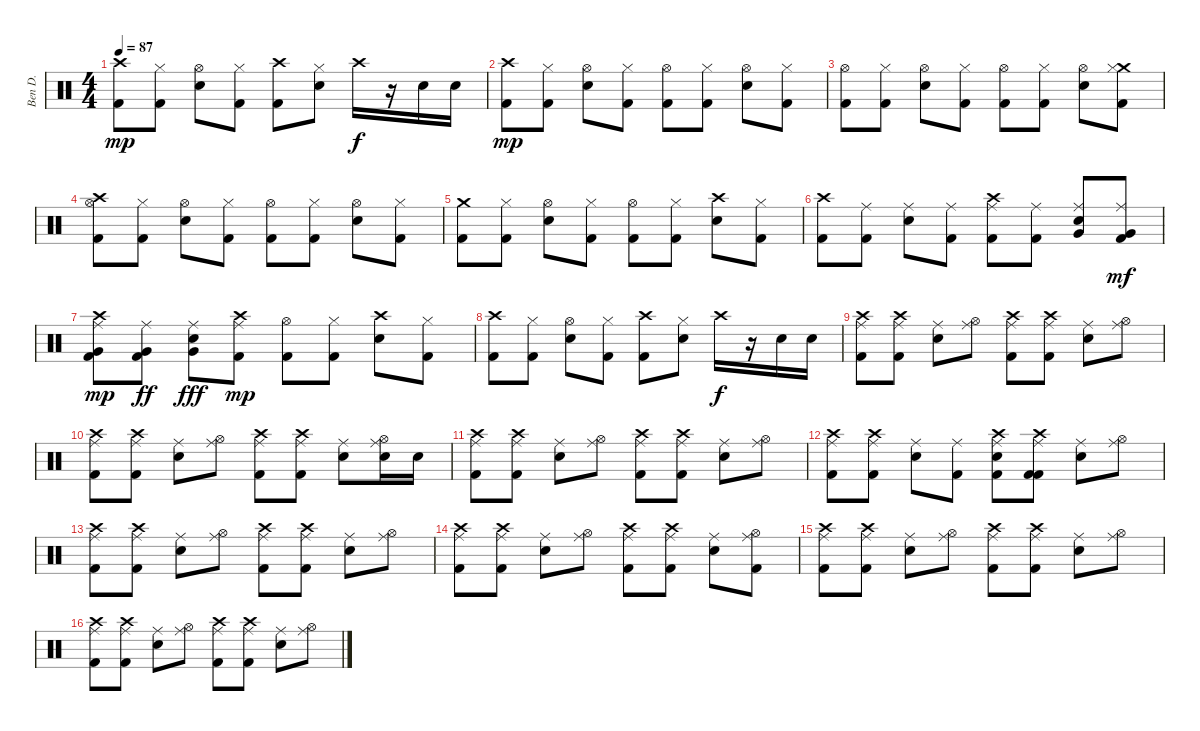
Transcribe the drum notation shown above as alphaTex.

\track ("Ben D." "Ben D.") {instrument percussion}
\staff {score}
\articulation defaults
\ts (4 4)
\tempo 87
\clef neutral
\ks c
("Crash high (hit)" "Kick (hit) 2").8{dy mp} ("Hi-Hat (closed)" "Kick (hit) 2").8 ("Hi-Hat (open)" "Electric Snare (hit)").8 ("Hi-Hat (closed)" "Kick (hit) 2").8 ("Crash high (hit)" "Kick (hit) 2").8 ("Hi-Hat (closed)" "Electric Snare (hit)").8 "Crash high (hit)".16{dy f} r.16 "Electric Snare (hit)".16 "Electric Snare (hit)".16 |
("Crash high (hit)" "Kick (hit) 2").8{dy mp} ("Hi-Hat (closed)" "Kick (hit) 2").8 ("Hi-Hat (open)" "Electric Snare (hit)").8 ("Hi-Hat (closed)" "Kick (hit) 2").8 ("Hi-Hat (open)" "Kick (hit) 2").8 ("Hi-Hat (closed)" "Kick (hit) 2").8 ("Hi-Hat (open)" "Electric Snare (hit)").8 ("Hi-Hat (closed)" "Kick (hit) 2").8 |
("Hi-Hat (open)" "Kick (hit) 2").8 ("Hi-Hat (closed)" "Kick (hit) 2").8 ("Hi-Hat (open)" "Electric Snare (hit)").8 ("Hi-Hat (closed)" "Kick (hit) 2").8 ("Hi-Hat (open)" "Kick (hit) 2").8 ("Hi-Hat (closed)" "Kick (hit) 2").8 ("Hi-Hat (open)" "Electric Snare (hit)").8 ("Crash medium (hit)" "Hi-Hat (closed)" "Kick (hit) 2").8 |
("Crash high (hit)" "Hi-Hat (open)" "Kick (hit) 2").8 ("Hi-Hat (closed)" "Kick (hit) 2").8 ("Hi-Hat (open)" "Electric Snare (hit)").8 ("Hi-Hat (closed)" "Kick (hit) 2").8 ("Hi-Hat (open)" "Kick (hit) 2").8 ("Hi-Hat (closed)" "Kick (hit) 2").8 ("Hi-Hat (open)" "Electric Snare (hit)").8 ("Hi-Hat (closed)" "Kick (hit) 2").8 |
("Crash medium (hit)" "Kick (hit) 2").8 ("Hi-Hat (closed)" "Kick (hit) 2").8 ("Hi-Hat (open)" "Electric Snare (hit)").8 ("Hi-Hat (closed)" "Kick (hit) 2").8 ("Hi-Hat (open)" "Kick (hit) 2").8 ("Hi-Hat (closed)" "Kick (hit) 2").8 ("Crash high (hit)" "Electric Snare (hit)").8 ("Hi-Hat (closed)" "Kick (hit) 2").8 |
("Crash high (hit)" "Kick (hit) 2").8 ("Ride (middle)" "Kick (hit) 2").8 ("Ride (middle)" "Electric Snare (hit)").8 ("Ride (middle)" "Kick (hit) 2").8 ("Crash high (hit)" "Ride (middle)" "Kick (hit) 2").8 ("Ride (middle)" "Kick (hit) 2").8 ("Ride (middle)" "Electric Snare (hit)" "Very Low Tom (hit)").8 ("Ride (middle)" "Kick (hit) 2" "Very Low Tom (hit)").8{dy mf} |
("Crash high (hit)" "Ride (middle)" "Kick (hit) 2" "Very Low Tom (hit)").8{dy mp} ("Ride (middle)" "Kick (hit) 2" "Very Low Tom (hit)").8{dy ff} ("Ride (middle)" "Electric Snare (hit)" "Very Low Tom (hit)").8{dy fff} ("Crash high (hit)" "Ride (middle)" "Kick (hit) 2").8{dy mp} ("Hi-Hat (open)" "Kick (hit) 2").8 ("Hi-Hat (closed)" "Kick (hit) 2").8 ("Crash high (hit)" "Electric Snare (hit)").8 ("Hi-Hat (closed)" "Kick (hit) 2").8 |
("Crash high (hit)" "Kick (hit) 2").8 ("Hi-Hat (closed)" "Kick (hit) 2").8 ("Hi-Hat (open)" "Electric Snare (hit)").8 ("Hi-Hat (closed)" "Kick (hit) 2").8 ("Crash high (hit)" "Kick (hit) 2").8 ("Hi-Hat (closed)" "Electric Snare (hit)").8 "Crash high (hit)".16{dy f} r.16 "Electric Snare (hit)".16 "Electric Snare (hit)".16 |
("Crash high (hit)" "Kick (hit) 2" "Ride (middle)").8 ("Crash high (hit)" "Kick (hit) 2" "Ride (middle)").8 ("Electric Snare (hit)" "Ride (middle)").8 ("Hi-Hat (open)" "Ride (middle)").8 ("Crash high (hit)" "Kick (hit) 2" "Ride (middle)").8 ("Crash high (hit)" "Kick (hit) 2" "Ride (middle)").8 ("Electric Snare (hit)" "Ride (middle)").8 ("Hi-Hat (open)" "Ride (middle)").8 |
("Crash high (hit)" "Kick (hit) 2" "Ride (middle)").8 ("Crash high (hit)" "Kick (hit) 2" "Ride (middle)").8 ("Electric Snare (hit)" "Ride (middle)").8 ("Hi-Hat (open)" "Ride (middle)").8 ("Crash high (hit)" "Kick (hit) 2" "Ride (middle)").8 ("Crash high (hit)" "Kick (hit) 2" "Ride (middle)").8 ("Electric Snare (hit)" "Ride (middle)").8 ("Hi-Hat (open)" "Electric Snare (hit)" "Ride (middle)").16 "Electric Snare (hit)".16 |
("Crash high (hit)" "Kick (hit) 2" "Ride (middle)").8 ("Crash high (hit)" "Kick (hit) 2" "Ride (middle)").8 ("Electric Snare (hit)" "Ride (middle)").8 ("Hi-Hat (open)" "Ride (middle)").8 ("Crash high (hit)" "Kick (hit) 2" "Ride (middle)").8 ("Crash high (hit)" "Kick (hit) 2" "Ride (middle)").8 ("Electric Snare (hit)" "Ride (middle)").8 ("Hi-Hat (open)" "Ride (middle)").8 |
("Crash high (hit)" "Kick (hit) 2" "Ride (middle)").8 ("Crash high (hit)" "Kick (hit) 2" "Ride (middle)").8 ("Electric Snare (hit)" "Ride (middle)").8 ("Kick (hit) 2" "Ride (middle)").8 ("Crash high (hit)" "Electric Snare (hit)" "Kick (hit) 2" "Ride (middle)").8 ("Crash high (hit)" "Kick (hit) 2" "Kick (hit) 2" "Ride (middle)").8 ("Electric Snare (hit)" "Ride (middle)").8 ("Hi-Hat (open)" "Ride (middle)").8 |
("Crash high (hit)" "Kick (hit) 2" "Ride (middle)").8 ("Crash high (hit)" "Kick (hit) 2" "Ride (middle)").8 ("Electric Snare (hit)" "Ride (middle)").8 ("Hi-Hat (open)" "Ride (middle)").8 ("Crash high (hit)" "Kick (hit) 2" "Ride (middle)").8 ("Crash high (hit)" "Kick (hit) 2" "Ride (middle)").8 ("Electric Snare (hit)" "Ride (middle)").8 ("Hi-Hat (open)" "Ride (middle)").8 |
("Crash high (hit)" "Kick (hit) 2" "Ride (middle)").8 ("Crash high (hit)" "Kick (hit) 2" "Ride (middle)").8 ("Electric Snare (hit)" "Ride (middle)").8 ("Hi-Hat (open)" "Ride (middle)").8 ("Crash high (hit)" "Kick (hit) 2" "Ride (middle)").8 ("Crash high (hit)" "Kick (hit) 2" "Ride (middle)").8 ("Electric Snare (hit)" "Ride (middle)").8 ("Hi-Hat (open)" "Kick (hit) 2" "Ride (middle)").8 |
("Crash high (hit)" "Kick (hit) 2" "Ride (middle)").8 ("Crash high (hit)" "Kick (hit) 2" "Ride (middle)").8 ("Electric Snare (hit)" "Ride (middle)").8 ("Hi-Hat (open)" "Ride (middle)").8 ("Crash high (hit)" "Kick (hit) 2" "Ride (middle)").8 ("Crash high (hit)" "Kick (hit) 2" "Ride (middle)").8 ("Electric Snare (hit)" "Ride (middle)").8 ("Hi-Hat (open)" "Ride (middle)").8 |
("Crash high (hit)" "Kick (hit) 2" "Ride (middle)").8 ("Crash high (hit)" "Kick (hit) 2" "Ride (middle)").8 ("Electric Snare (hit)" "Ride (middle)").8 ("Hi-Hat (open)" "Ride (middle)").8 ("Crash high (hit)" "Kick (hit) 2" "Ride (middle)").8 ("Crash high (hit)" "Kick (hit) 2" "Ride (middle)").8 ("Electric Snare (hit)" "Ride (middle)").8 ("Hi-Hat (open)" "Ride (middle)").8
